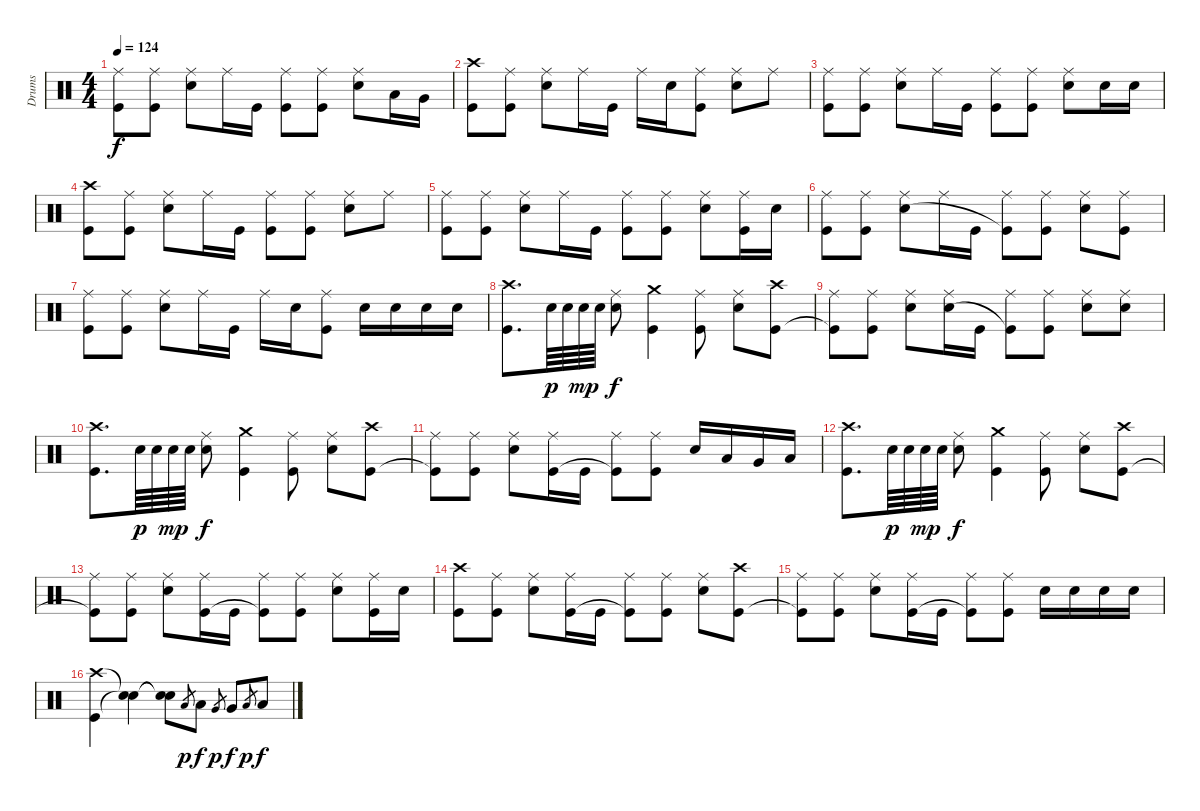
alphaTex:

\track ("Drums" "Drums") {instrument percussion}
\staff {score}
\articulation defaults
\ts (4 4)
\tempo 124
\clef neutral
\ks c
("Ride (middle)" "Kick (hit)").8{dy f} ("Ride (middle)" "Kick (hit)").8 ("Ride (middle)" "Electric Snare (hit)").8 "Ride (middle)".16 "Kick (hit)".16 ("Ride (middle)" "Kick (hit)").8 ("Ride (middle)" "Kick (hit)").8 ("Ride (middle)" "Electric Snare (hit)").8 "Low Tom (hit)".16 "Very Low Tom (hit)".16 |
("Crash high (hit)" "Kick (hit)").8 ("Ride (middle)" "Kick (hit)").8 ("Ride (middle)" "Electric Snare (hit)").8 "Ride (middle)".16 "Kick (hit)".16 "Ride (middle)".16 "Electric Snare (hit)".16 ("Ride (middle)" "Kick (hit)").8 ("Ride (middle)" "Electric Snare (hit)").8 "Ride (middle)".8 |
("Ride (middle)" "Kick (hit)").8 ("Ride (middle)" "Kick (hit)").8 ("Ride (middle)" "Electric Snare (hit)").8 "Ride (middle)".16 "Kick (hit)".16 ("Ride (middle)" "Kick (hit)").8 ("Ride (middle)" "Kick (hit)").8 ("Ride (middle)" "Electric Snare (hit)").8 "Electric Snare (hit)".16 "Electric Snare (hit)".16 |
("Crash high (hit)" "Kick (hit)").8 ("Ride (middle)" "Kick (hit)").8 ("Ride (middle)" "Electric Snare (hit)").8 "Ride (middle)".16 "Kick (hit)".16 ("Ride (middle)" "Kick (hit)").8 ("Ride (middle)" "Kick (hit)").8 ("Ride (middle)" "Electric Snare (hit)").8 "Ride (middle)".8 |
("Ride (middle)" "Kick (hit)").8 ("Ride (middle)" "Kick (hit)").8 ("Ride (middle)" "Electric Snare (hit)").8 "Ride (middle)".16 "Kick (hit)".16 ("Ride (middle)" "Kick (hit)").8 ("Ride (middle)" "Kick (hit)").8 ("Ride (middle)" "Electric Snare (hit)").8 ("Ride (middle)" "Kick (hit)").16 "Electric Snare (hit)".16 |
("Ride (middle)" "Kick (hit)").8 ("Ride (middle)" "Kick (hit)").8 ("Ride (middle)" "Electric Snare (hit)").8 "Ride (middle)".16 "Kick (hit)".16 ("Ride (middle)" "Kick (hit)"{t}).8 ("Ride (middle)" "Kick (hit)").8 ("Ride (middle)" "Electric Snare (hit)").8 ("Ride (middle)" "Kick (hit)").8 |
("Ride (middle)" "Kick (hit)").8 ("Ride (middle)" "Kick (hit)").8 ("Ride (middle)" "Electric Snare (hit)").8 "Ride (middle)".16 "Kick (hit)".16 "Ride (middle)".16 "Electric Snare (hit)".16 ("Ride (middle)" "Kick (hit)").8 "Electric Snare (hit)".16 "Electric Snare (hit)".16 "Electric Snare (hit)".16 "Electric Snare (hit)".16 |
("Crash high (hit)" "Kick (hit)").8{d} "Snare (hit) 2".64{dy p} "Snare (hit) 2".64 "Snare (hit) 2".64{dy mp} "Snare (hit) 2".64 ("Ride (middle)" "Electric Snare (hit)").8{dy f} ("Crash medium (hit)" "Kick (hit)").4 ("Ride (middle)" "Kick (hit)").8 ("Ride (middle)" "Electric Snare (hit)").8 ("Crash high (hit)" "Kick (hit)").8 |
("Ride (middle)" "Kick (hit)"{t}).8 ("Ride (middle)" "Kick (hit)").8 ("Ride (middle)" "Electric Snare (hit)").8 ("Ride (middle)" "Electric Snare (hit)").16 "Kick (hit)".16 ("Ride (middle)" "Kick (hit)"{t}).8 ("Ride (middle)" "Kick (hit)").8 ("Ride (middle)" "Electric Snare (hit)").8 ("Ride (middle)" "Electric Snare (hit)").8 |
("Crash high (hit)" "Kick (hit)").8{d} "Snare (hit) 2".64{dy p} "Snare (hit) 2".64 "Snare (hit) 2".64{dy mp} "Snare (hit) 2".64 ("Ride (middle)" "Electric Snare (hit)").8{dy f} ("Crash medium (hit)" "Kick (hit)").4 ("Ride (middle)" "Kick (hit)").8 ("Ride (middle)" "Electric Snare (hit)").8 ("Crash high (hit)" "Kick (hit)").8 |
("Ride (middle)" "Kick (hit)"{t}).8 ("Ride (middle)" "Kick (hit)").8 ("Ride (middle)" "Electric Snare (hit)").8 ("Ride (middle)" "Kick (hit)").16 "Kick (hit)".16 ("Ride (middle)" "Kick (hit)"{t}).8 ("Ride (middle)" "Kick (hit)").8 "Electric Snare (hit)".16 "Low Tom (hit)".16 "Very Low Tom (hit)".16 "Low Floor Tom (hit)".16 |
("Crash high (hit)" "Kick (hit)").8{d} "Snare (hit) 2".64{dy p} "Snare (hit) 2".64 "Snare (hit) 2".64{dy mp} "Snare (hit) 2".64 ("Ride (middle)" "Electric Snare (hit)").8{dy f} ("Crash medium (hit)" "Kick (hit)").4 ("Ride (middle)" "Kick (hit)").8 ("Ride (middle)" "Electric Snare (hit)").8 ("Crash high (hit)" "Kick (hit)").8 |
("Ride (middle)" "Kick (hit)"{t}).8 ("Ride (middle)" "Kick (hit)").8 ("Ride (middle)" "Electric Snare (hit)").8 ("Ride (middle)" "Kick (hit)").16 "Kick (hit)".16 ("Ride (middle)" "Kick (hit)"{t}).8 ("Ride (middle)" "Kick (hit)").8 ("Ride (middle)" "Electric Snare (hit)").8 ("Ride (middle)" "Kick (hit)").16 "Electric Snare (hit)".16 |
("Crash high (hit)" "Kick (hit)").8 ("Ride (middle)" "Kick (hit)").8 ("Ride (middle)" "Electric Snare (hit)").8 ("Ride (middle)" "Kick (hit)").16 "Kick (hit)".16 ("Ride (middle)" "Kick (hit)"{t}).8 ("Ride (middle)" "Kick (hit)").8 ("Ride (middle)" "Electric Snare (hit)").8 ("Crash high (hit)" "Kick (hit)").8 |
("Ride (middle)" "Kick (hit)"{t}).8 ("Ride (middle)" "Kick (hit)").8 ("Ride (middle)" "Electric Snare (hit)").8 ("Ride (middle)" "Kick (hit)").16 "Kick (hit)".16 ("Ride (middle)" "Kick (hit)"{t}).8 ("Ride (middle)" "Kick (hit)").8 "Electric Snare (hit)".16 "Electric Snare (hit)".16 "Electric Snare (hit)".16 "Electric Snare (hit)".16 |
("Crash high (hit)" "Kick (hit)").4 ("Snare (hit)"{t} "Snare (hit)"{t}).4 ("Snare (hit)"{t} "Snare (hit)"{t}).8 "Low Tom (hit)".8{gr dy p} "Low Tom (hit)".8{dy f} "Very Low Tom (hit)".8{gr dy p} "Very Low Tom (hit)".8{dy f} "Low Floor Tom (hit)".8{gr dy p} "Low Floor Tom (hit)".8{dy f}
